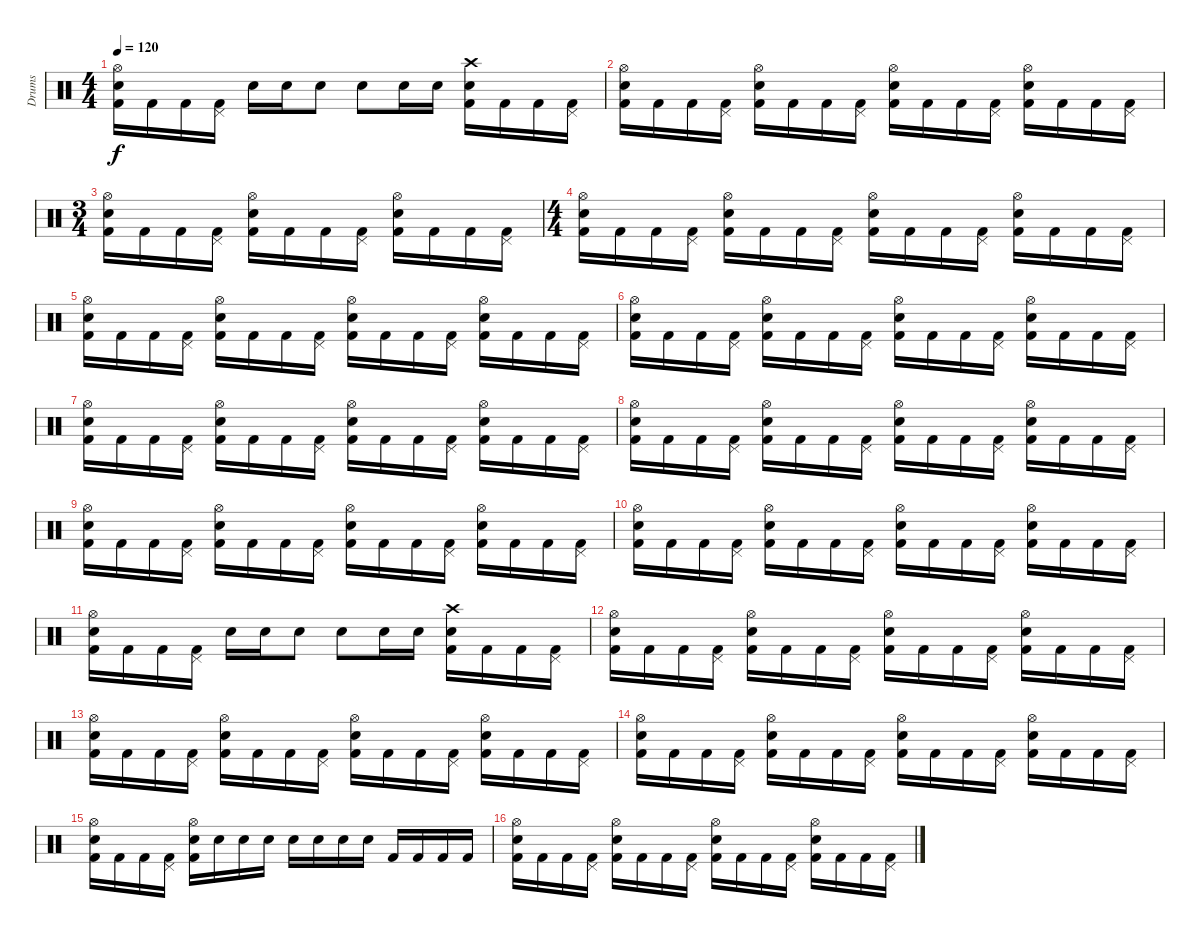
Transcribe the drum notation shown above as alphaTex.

\track ("Drums" "Drums") {instrument percussion}
\staff {score}
\articulation defaults
\ts (4 4)
\tempo 120
\clef neutral
\ks c
("Hi-Hat (open)" "Snare (hit) 2" "Kick (hit) 2").16{dy f} "Kick (hit) 2".16 "Kick (hit) 2".16 ("Pedal Hi-Hat (hit)" "Kick (hit) 2").16 "Electric Snare (hit)".16 "Electric Snare (hit)".16 "Electric Snare (hit)".8 "Electric Snare (hit)".8 "Electric Snare (hit)".16 "Electric Snare (hit)".16 ("Crash high (hit)" "Snare (hit) 2" "Kick (hit) 2").16 "Kick (hit) 2".16 "Kick (hit) 2".16 ("Pedal Hi-Hat (hit)" "Kick (hit) 2").16 |
("Hi-Hat (open)" "Snare (hit) 2" "Kick (hit) 2").16 "Kick (hit) 2".16 "Kick (hit) 2".16 ("Pedal Hi-Hat (hit)" "Kick (hit) 2").16 ("Hi-Hat (open)" "Snare (hit) 2" "Kick (hit) 2").16 "Kick (hit) 2".16 "Kick (hit) 2".16 ("Pedal Hi-Hat (hit)" "Kick (hit) 2").16 ("Hi-Hat (open)" "Snare (hit) 2" "Kick (hit) 2").16 "Kick (hit) 2".16 "Kick (hit) 2".16 ("Pedal Hi-Hat (hit)" "Kick (hit) 2").16 ("Hi-Hat (open)" "Snare (hit) 2" "Kick (hit) 2").16 "Kick (hit) 2".16 "Kick (hit) 2".16 ("Pedal Hi-Hat (hit)" "Kick (hit) 2").16 |
\ts (3 4)
("Hi-Hat (open)" "Snare (hit) 2" "Kick (hit) 2").16 "Kick (hit) 2".16 "Kick (hit) 2".16 ("Pedal Hi-Hat (hit)" "Kick (hit) 2").16 ("Hi-Hat (open)" "Snare (hit) 2" "Kick (hit) 2").16 "Kick (hit) 2".16 "Kick (hit) 2".16 ("Pedal Hi-Hat (hit)" "Kick (hit) 2").16 ("Hi-Hat (open)" "Snare (hit) 2" "Kick (hit) 2").16 "Kick (hit) 2".16 "Kick (hit) 2".16 ("Pedal Hi-Hat (hit)" "Kick (hit) 2").16 |
\ts (4 4)
("Hi-Hat (open)" "Snare (hit) 2" "Kick (hit) 2").16 "Kick (hit) 2".16 "Kick (hit) 2".16 ("Pedal Hi-Hat (hit)" "Kick (hit) 2").16 ("Hi-Hat (open)" "Snare (hit) 2" "Kick (hit) 2").16 "Kick (hit) 2".16 "Kick (hit) 2".16 ("Pedal Hi-Hat (hit)" "Kick (hit) 2").16 ("Hi-Hat (open)" "Snare (hit) 2" "Kick (hit) 2").16 "Kick (hit) 2".16 "Kick (hit) 2".16 ("Pedal Hi-Hat (hit)" "Kick (hit) 2").16 ("Hi-Hat (open)" "Snare (hit) 2" "Kick (hit) 2").16 "Kick (hit) 2".16 "Kick (hit) 2".16 ("Pedal Hi-Hat (hit)" "Kick (hit) 2").16 |
("Hi-Hat (open)" "Snare (hit) 2" "Kick (hit) 2").16 "Kick (hit) 2".16 "Kick (hit) 2".16 ("Pedal Hi-Hat (hit)" "Kick (hit) 2").16 ("Hi-Hat (open)" "Snare (hit) 2" "Kick (hit) 2").16 "Kick (hit) 2".16 "Kick (hit) 2".16 ("Pedal Hi-Hat (hit)" "Kick (hit) 2").16 ("Hi-Hat (open)" "Snare (hit) 2" "Kick (hit) 2").16 "Kick (hit) 2".16 "Kick (hit) 2".16 ("Pedal Hi-Hat (hit)" "Kick (hit) 2").16 ("Hi-Hat (open)" "Snare (hit) 2" "Kick (hit) 2").16 "Kick (hit) 2".16 "Kick (hit) 2".16 ("Pedal Hi-Hat (hit)" "Kick (hit) 2").16 |
("Hi-Hat (open)" "Snare (hit) 2" "Kick (hit) 2").16 "Kick (hit) 2".16 "Kick (hit) 2".16 ("Pedal Hi-Hat (hit)" "Kick (hit) 2").16 ("Hi-Hat (open)" "Snare (hit) 2" "Kick (hit) 2").16 "Kick (hit) 2".16 "Kick (hit) 2".16 ("Pedal Hi-Hat (hit)" "Kick (hit) 2").16 ("Hi-Hat (open)" "Snare (hit) 2" "Kick (hit) 2").16 "Kick (hit) 2".16 "Kick (hit) 2".16 ("Pedal Hi-Hat (hit)" "Kick (hit) 2").16 ("Hi-Hat (open)" "Snare (hit) 2" "Kick (hit) 2").16 "Kick (hit) 2".16 "Kick (hit) 2".16 ("Pedal Hi-Hat (hit)" "Kick (hit) 2").16 |
("Hi-Hat (open)" "Snare (hit) 2" "Kick (hit) 2").16 "Kick (hit) 2".16 "Kick (hit) 2".16 ("Pedal Hi-Hat (hit)" "Kick (hit) 2").16 ("Hi-Hat (open)" "Snare (hit) 2" "Kick (hit) 2").16 "Kick (hit) 2".16 "Kick (hit) 2".16 ("Pedal Hi-Hat (hit)" "Kick (hit) 2").16 ("Hi-Hat (open)" "Snare (hit) 2" "Kick (hit) 2").16 "Kick (hit) 2".16 "Kick (hit) 2".16 ("Pedal Hi-Hat (hit)" "Kick (hit) 2").16 ("Hi-Hat (open)" "Snare (hit) 2" "Kick (hit) 2").16 "Kick (hit) 2".16 "Kick (hit) 2".16 ("Pedal Hi-Hat (hit)" "Kick (hit) 2").16 |
("Hi-Hat (open)" "Snare (hit) 2" "Kick (hit) 2").16 "Kick (hit) 2".16 "Kick (hit) 2".16 ("Pedal Hi-Hat (hit)" "Kick (hit) 2").16 ("Hi-Hat (open)" "Snare (hit) 2" "Kick (hit) 2").16 "Kick (hit) 2".16 "Kick (hit) 2".16 ("Pedal Hi-Hat (hit)" "Kick (hit) 2").16 ("Hi-Hat (open)" "Snare (hit) 2" "Kick (hit) 2").16 "Kick (hit) 2".16 "Kick (hit) 2".16 ("Pedal Hi-Hat (hit)" "Kick (hit) 2").16 ("Hi-Hat (open)" "Snare (hit) 2" "Kick (hit) 2").16 "Kick (hit) 2".16 "Kick (hit) 2".16 ("Pedal Hi-Hat (hit)" "Kick (hit) 2").16 |
("Hi-Hat (open)" "Snare (hit) 2" "Kick (hit) 2").16 "Kick (hit) 2".16 "Kick (hit) 2".16 ("Pedal Hi-Hat (hit)" "Kick (hit) 2").16 ("Hi-Hat (open)" "Snare (hit) 2" "Kick (hit) 2").16 "Kick (hit) 2".16 "Kick (hit) 2".16 ("Pedal Hi-Hat (hit)" "Kick (hit) 2").16 ("Hi-Hat (open)" "Snare (hit) 2" "Kick (hit) 2").16 "Kick (hit) 2".16 "Kick (hit) 2".16 ("Pedal Hi-Hat (hit)" "Kick (hit) 2").16 ("Hi-Hat (open)" "Snare (hit) 2" "Kick (hit) 2").16 "Kick (hit) 2".16 "Kick (hit) 2".16 ("Pedal Hi-Hat (hit)" "Kick (hit) 2").16 |
("Hi-Hat (open)" "Snare (hit) 2" "Kick (hit) 2").16 "Kick (hit) 2".16 "Kick (hit) 2".16 ("Pedal Hi-Hat (hit)" "Kick (hit) 2").16 ("Hi-Hat (open)" "Snare (hit) 2" "Kick (hit) 2").16 "Kick (hit) 2".16 "Kick (hit) 2".16 ("Pedal Hi-Hat (hit)" "Kick (hit) 2").16 ("Hi-Hat (open)" "Snare (hit) 2" "Kick (hit) 2").16 "Kick (hit) 2".16 "Kick (hit) 2".16 ("Pedal Hi-Hat (hit)" "Kick (hit) 2").16 ("Hi-Hat (open)" "Snare (hit) 2" "Kick (hit) 2").16 "Kick (hit) 2".16 "Kick (hit) 2".16 ("Pedal Hi-Hat (hit)" "Kick (hit) 2").16 |
("Hi-Hat (open)" "Snare (hit) 2" "Kick (hit) 2").16 "Kick (hit) 2".16 "Kick (hit) 2".16 ("Pedal Hi-Hat (hit)" "Kick (hit) 2").16 "Electric Snare (hit)".16 "Electric Snare (hit)".16 "Electric Snare (hit)".8 "Electric Snare (hit)".8 "Electric Snare (hit)".16 "Electric Snare (hit)".16 ("Crash high (hit)" "Snare (hit) 2" "Kick (hit) 2").16 "Kick (hit) 2".16 "Kick (hit) 2".16 ("Pedal Hi-Hat (hit)" "Kick (hit) 2").16 |
("Hi-Hat (open)" "Snare (hit) 2" "Kick (hit) 2").16 "Kick (hit) 2".16 "Kick (hit) 2".16 ("Pedal Hi-Hat (hit)" "Kick (hit) 2").16 ("Hi-Hat (open)" "Snare (hit) 2" "Kick (hit) 2").16 "Kick (hit) 2".16 "Kick (hit) 2".16 ("Pedal Hi-Hat (hit)" "Kick (hit) 2").16 ("Hi-Hat (open)" "Snare (hit) 2" "Kick (hit) 2").16 "Kick (hit) 2".16 "Kick (hit) 2".16 ("Pedal Hi-Hat (hit)" "Kick (hit) 2").16 ("Hi-Hat (open)" "Snare (hit) 2" "Kick (hit) 2").16 "Kick (hit) 2".16 "Kick (hit) 2".16 ("Pedal Hi-Hat (hit)" "Kick (hit) 2").16 |
("Hi-Hat (open)" "Snare (hit) 2" "Kick (hit) 2").16 "Kick (hit) 2".16 "Kick (hit) 2".16 ("Pedal Hi-Hat (hit)" "Kick (hit) 2").16 ("Hi-Hat (open)" "Snare (hit) 2" "Kick (hit) 2").16 "Kick (hit) 2".16 "Kick (hit) 2".16 ("Pedal Hi-Hat (hit)" "Kick (hit) 2").16 ("Hi-Hat (open)" "Snare (hit) 2" "Kick (hit) 2").16 "Kick (hit) 2".16 "Kick (hit) 2".16 ("Pedal Hi-Hat (hit)" "Kick (hit) 2").16 ("Hi-Hat (open)" "Snare (hit) 2" "Kick (hit) 2").16 "Kick (hit) 2".16 "Kick (hit) 2".16 ("Pedal Hi-Hat (hit)" "Kick (hit) 2").16 |
("Hi-Hat (open)" "Snare (hit) 2" "Kick (hit) 2").16 "Kick (hit) 2".16 "Kick (hit) 2".16 ("Pedal Hi-Hat (hit)" "Kick (hit) 2").16 ("Hi-Hat (open)" "Snare (hit) 2" "Kick (hit) 2").16 "Kick (hit) 2".16 "Kick (hit) 2".16 ("Pedal Hi-Hat (hit)" "Kick (hit) 2").16 ("Hi-Hat (open)" "Snare (hit) 2" "Kick (hit) 2").16 "Kick (hit) 2".16 "Kick (hit) 2".16 ("Pedal Hi-Hat (hit)" "Kick (hit) 2").16 ("Hi-Hat (open)" "Snare (hit) 2" "Kick (hit) 2").16 "Kick (hit) 2".16 "Kick (hit) 2".16 ("Pedal Hi-Hat (hit)" "Kick (hit) 2").16 |
("Hi-Hat (open)" "Snare (hit) 2" "Kick (hit) 2").16 "Kick (hit) 2".16 "Kick (hit) 2".16 ("Pedal Hi-Hat (hit)" "Kick (hit) 2").16 ("Hi-Hat (open)" "Electric Snare (hit)" "Kick (hit) 2").16 "Electric Snare (hit)".16 "Electric Snare (hit)".16 "Electric Snare (hit)".16 "Snare (hit) 2".16 "Snare (hit) 2".16 "Snare (hit) 2".16 "Snare (hit) 2".16 "Kick (hit) 2".16 "Kick (hit) 2".16 "Kick (hit) 2".16 "Kick (hit) 2".16 |
("Hi-Hat (open)" "Snare (hit) 2" "Kick (hit) 2").16 "Kick (hit) 2".16 "Kick (hit) 2".16 ("Pedal Hi-Hat (hit)" "Kick (hit) 2").16 ("Hi-Hat (open)" "Snare (hit) 2" "Kick (hit) 2").16 "Kick (hit) 2".16 "Kick (hit) 2".16 ("Pedal Hi-Hat (hit)" "Kick (hit) 2").16 ("Hi-Hat (open)" "Snare (hit) 2" "Kick (hit) 2").16 "Kick (hit) 2".16 "Kick (hit) 2".16 ("Pedal Hi-Hat (hit)" "Kick (hit) 2").16 ("Hi-Hat (open)" "Snare (hit) 2" "Kick (hit) 2").16 "Kick (hit) 2".16 "Kick (hit) 2".16 ("Pedal Hi-Hat (hit)" "Kick (hit) 2").16
